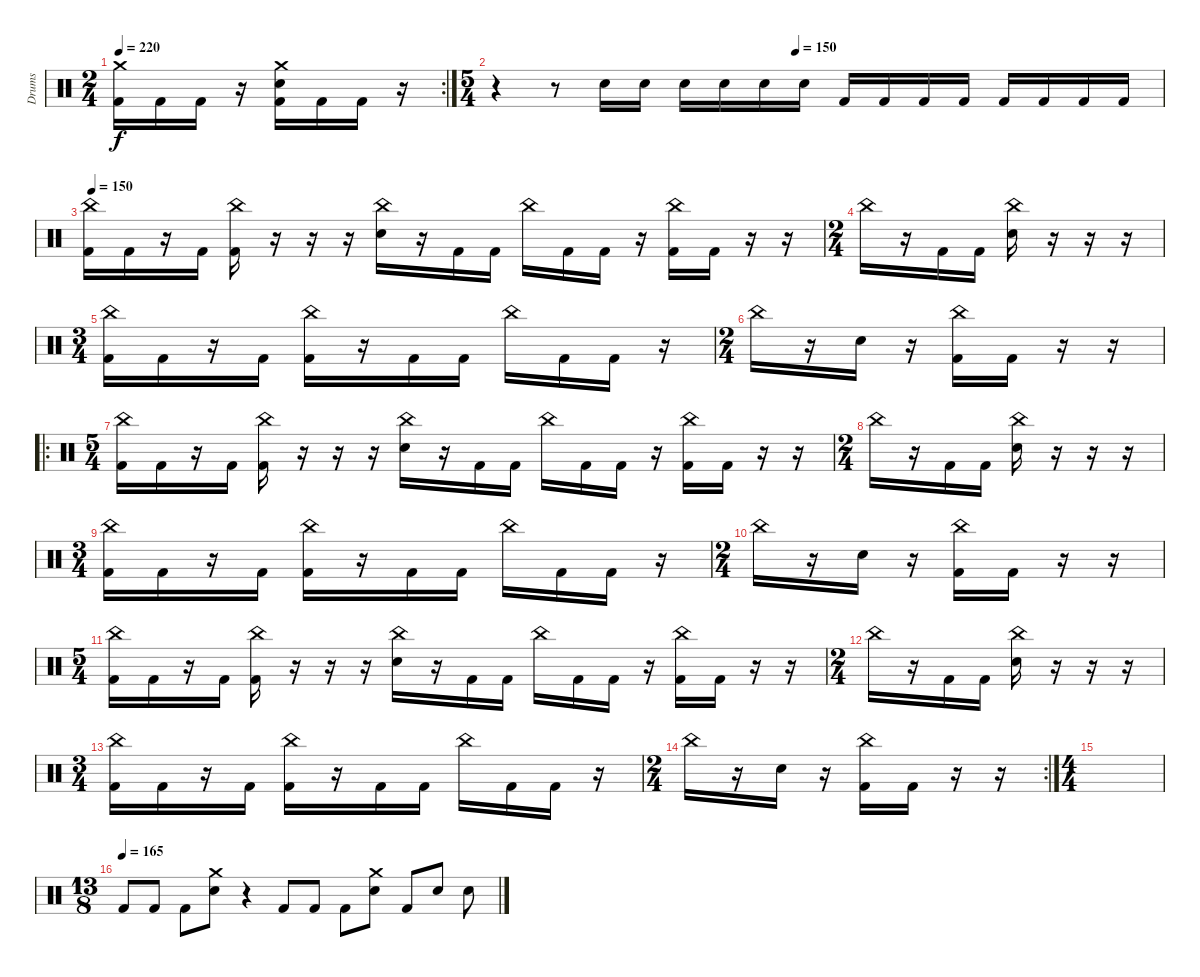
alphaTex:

\track ("Drums" "Drums") {instrument percussion}
\staff {score}
\articulation defaults
\rc 2
\ts (2 4)
\tempo 220
\clef neutral
\ks c
("Crash medium (hit)" "Kick (hit) 2").16{dy f} "Kick (hit) 2".16 "Kick (hit) 2".16 r.16 ("Crash medium (hit)" "Electric Snare (hit)" "Kick (hit) 2").16 "Kick (hit) 2".16 "Kick (hit) 2".16 r.16 |
\ts (5 4)
\tempo (150 0.45)
r.4 r.8 "Snare (hit) 2".16 "Snare (hit) 2".16 "Snare (hit) 2".16 "Snare (hit) 2".16 "Snare (hit) 2".16 "Snare (hit) 2".16 "Kick (hit) 2".16 "Kick (hit) 2".16 "Kick (hit) 2".16 "Kick (hit) 2".16 "Kick (hit) 2".16 "Kick (hit) 2".16 "Kick (hit) 2".16 "Kick (hit) 2".16 |
\tempo 150
("China (hit)" "Kick (hit) 2").16 "Kick (hit) 2".16 r.16 "Kick (hit) 2".16 ("China (hit)" "Kick (hit) 2").16 r.16 r.16 r.16 ("China (hit)" "Electric Snare (hit)").16 r.16 "Kick (hit) 2".16 "Kick (hit) 2".16 "China (hit)".16 "Kick (hit) 2".16 "Kick (hit) 2".16 r.16 ("China (hit)" "Kick (hit) 2").16 "Kick (hit) 2".16 r.16 r.16 |
\ts (2 4)
"China (hit)".16 r.16 "Kick (hit) 2".16 "Kick (hit) 2".16 ("China (hit)" "Electric Snare (hit)").16 r.16 r.16 r.16 |
\ts (3 4)
("China (hit)" "Kick (hit) 2").16 "Kick (hit) 2".16 r.16 "Kick (hit) 2".16 ("China (hit)" "Kick (hit) 2").16 r.16 "Kick (hit) 2".16 "Kick (hit) 2".16 "China (hit)".16 "Kick (hit) 2".16 "Kick (hit) 2".16 r.16 |
\ts (2 4)
"China (hit)".16 r.16 "Electric Snare (hit)".16 r.16 ("China (hit)" "Kick (hit) 2").16 "Kick (hit) 2".16 r.16 r.16 |
\ro
\ts (5 4)
("China (hit)" "Kick (hit) 2").16 "Kick (hit) 2".16 r.16 "Kick (hit) 2".16 ("China (hit)" "Kick (hit) 2").16 r.16 r.16 r.16 ("China (hit)" "Electric Snare (hit)").16 r.16 "Kick (hit) 2".16 "Kick (hit) 2".16 "China (hit)".16 "Kick (hit) 2".16 "Kick (hit) 2".16 r.16 ("China (hit)" "Kick (hit) 2").16 "Kick (hit) 2".16 r.16 r.16 |
\ts (2 4)
"China (hit)".16 r.16 "Kick (hit) 2".16 "Kick (hit) 2".16 ("China (hit)" "Electric Snare (hit)").16 r.16 r.16 r.16 |
\ts (3 4)
("China (hit)" "Kick (hit) 2").16 "Kick (hit) 2".16 r.16 "Kick (hit) 2".16 ("China (hit)" "Kick (hit) 2").16 r.16 "Kick (hit) 2".16 "Kick (hit) 2".16 "China (hit)".16 "Kick (hit) 2".16 "Kick (hit) 2".16 r.16 |
\ts (2 4)
"China (hit)".16 r.16 "Electric Snare (hit)".16 r.16 ("China (hit)" "Kick (hit) 2").16 "Kick (hit) 2".16 r.16 r.16 |
\ts (5 4)
("China (hit)" "Kick (hit) 2").16 "Kick (hit) 2".16 r.16 "Kick (hit) 2".16 ("China (hit)" "Kick (hit) 2").16 r.16 r.16 r.16 ("China (hit)" "Electric Snare (hit)").16 r.16 "Kick (hit) 2".16 "Kick (hit) 2".16 "China (hit)".16 "Kick (hit) 2".16 "Kick (hit) 2".16 r.16 ("China (hit)" "Kick (hit) 2").16 "Kick (hit) 2".16 r.16 r.16 |
\ts (2 4)
"China (hit)".16 r.16 "Kick (hit) 2".16 "Kick (hit) 2".16 ("China (hit)" "Electric Snare (hit)").16 r.16 r.16 r.16 |
\ts (3 4)
("China (hit)" "Kick (hit) 2").16 "Kick (hit) 2".16 r.16 "Kick (hit) 2".16 ("China (hit)" "Kick (hit) 2").16 r.16 "Kick (hit) 2".16 "Kick (hit) 2".16 "China (hit)".16 "Kick (hit) 2".16 "Kick (hit) 2".16 r.16 |
\rc 2
\ts (2 4)
"China (hit)".16 r.16 "Electric Snare (hit)".16 r.16 ("China (hit)" "Kick (hit) 2").16 "Kick (hit) 2".16 r.16 r.16 |
\ts (4 4)
|
\ts (13 8)
\tempo (165)
"Kick (hit) 2".8 "Kick (hit) 2".8 "Kick (hit) 2".8 ("Crash medium (hit)" "Electric Snare (hit)").8 r.4 "Kick (hit) 2".8 "Kick (hit) 2".8 "Kick (hit) 2".8 ("Crash medium (hit)" "Electric Snare (hit)").8 "Kick (hit) 2".8 "Electric Snare (hit)".8 "Electric Snare (hit)".8
